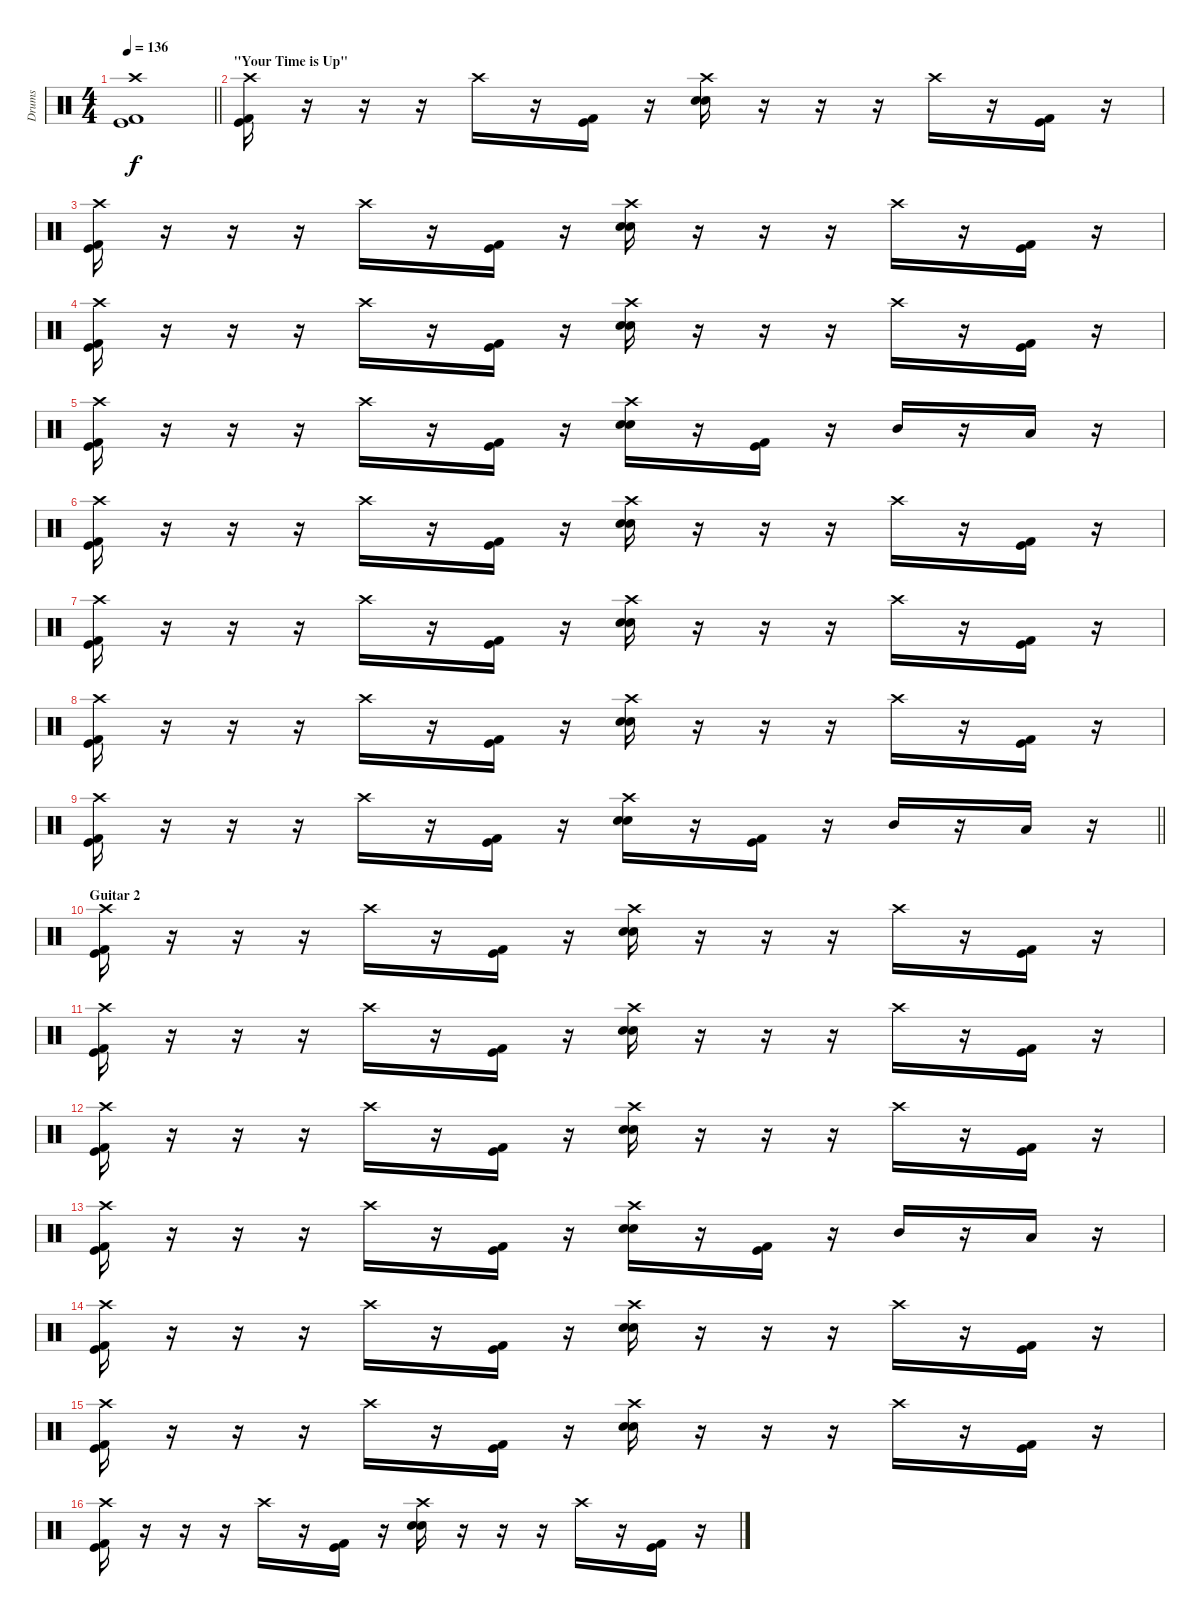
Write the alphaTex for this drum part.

\track ("Drums" "Drums") {instrument percussion}
\staff {score}
\articulation defaults
\ts (4 4)
\section ("" "")
\tempo 136
\clef neutral
\barLineRight lightlight
\ks c
("Crash high (hit)" "Kick (hit)" "Kick (hit) 2").1{dy f} |
\section ("" "\"Your Time is Up\"")
("Crash high (hit)" "Kick (hit)" "Kick (hit) 2").16 r.16 r.16 r.16 "Crash high (hit)".16 r.16 ("Kick (hit)" "Kick (hit) 2").16 r.16 ("Crash high (hit)" "Electric Snare (hit)" "Snare (hit) 2").16 r.16 r.16 r.16 "Crash high (hit)".16 r.16 ("Kick (hit)" "Kick (hit) 2").16 r.16 |
("Crash high (hit)" "Kick (hit)" "Kick (hit) 2").16 r.16 r.16 r.16 "Crash high (hit)".16 r.16 ("Kick (hit)" "Kick (hit) 2").16 r.16 ("Crash high (hit)" "Electric Snare (hit)" "Snare (hit) 2").16 r.16 r.16 r.16 "Crash high (hit)".16 r.16 ("Kick (hit)" "Kick (hit) 2").16 r.16 |
("Crash high (hit)" "Kick (hit)" "Kick (hit) 2").16 r.16 r.16 r.16 "Crash high (hit)".16 r.16 ("Kick (hit)" "Kick (hit) 2").16 r.16 ("Crash high (hit)" "Electric Snare (hit)" "Snare (hit) 2").16 r.16 r.16 r.16 "Crash high (hit)".16 r.16 ("Kick (hit)" "Kick (hit) 2").16 r.16 |
("Crash high (hit)" "Kick (hit)" "Kick (hit) 2").16 r.16 r.16 r.16 "Crash high (hit)".16 r.16 ("Kick (hit)" "Kick (hit) 2").16 r.16 ("Crash high (hit)" "Electric Snare (hit)" "Snare (hit) 2").16 r.16 ("Kick (hit)" "Kick (hit) 2").16 r.16 "Mid Tom (hit)".16 r.16 "Low Tom (hit)".16 r.16 |
("Crash high (hit)" "Kick (hit)" "Kick (hit) 2").16 r.16 r.16 r.16 "Crash high (hit)".16 r.16 ("Kick (hit)" "Kick (hit) 2").16 r.16 ("Crash high (hit)" "Electric Snare (hit)" "Snare (hit) 2").16 r.16 r.16 r.16 "Crash high (hit)".16 r.16 ("Kick (hit)" "Kick (hit) 2").16 r.16 |
("Crash high (hit)" "Kick (hit)" "Kick (hit) 2").16 r.16 r.16 r.16 "Crash high (hit)".16 r.16 ("Kick (hit)" "Kick (hit) 2").16 r.16 ("Crash high (hit)" "Electric Snare (hit)" "Snare (hit) 2").16 r.16 r.16 r.16 "Crash high (hit)".16 r.16 ("Kick (hit)" "Kick (hit) 2").16 r.16 |
("Crash high (hit)" "Kick (hit)" "Kick (hit) 2").16 r.16 r.16 r.16 "Crash high (hit)".16 r.16 ("Kick (hit)" "Kick (hit) 2").16 r.16 ("Crash high (hit)" "Electric Snare (hit)" "Snare (hit) 2").16 r.16 r.16 r.16 "Crash high (hit)".16 r.16 ("Kick (hit)" "Kick (hit) 2").16 r.16 |
\barLineRight lightlight
("Crash high (hit)" "Kick (hit)" "Kick (hit) 2").16 r.16 r.16 r.16 "Crash high (hit)".16 r.16 ("Kick (hit)" "Kick (hit) 2").16 r.16 ("Crash high (hit)" "Electric Snare (hit)" "Snare (hit) 2").16 r.16 ("Kick (hit)" "Kick (hit) 2").16 r.16 "Mid Tom (hit)".16 r.16 "Low Tom (hit)".16 r.16 |
\section ("" "Guitar 2")
("Crash high (hit)" "Kick (hit)" "Kick (hit) 2").16 r.16 r.16 r.16 "Crash high (hit)".16 r.16 ("Kick (hit)" "Kick (hit) 2").16 r.16 ("Crash high (hit)" "Electric Snare (hit)" "Snare (hit) 2").16 r.16 r.16 r.16 "Crash high (hit)".16 r.16 ("Kick (hit)" "Kick (hit) 2").16 r.16 |
("Crash high (hit)" "Kick (hit)" "Kick (hit) 2").16 r.16 r.16 r.16 "Crash high (hit)".16 r.16 ("Kick (hit)" "Kick (hit) 2").16 r.16 ("Crash high (hit)" "Electric Snare (hit)" "Snare (hit) 2").16 r.16 r.16 r.16 "Crash high (hit)".16 r.16 ("Kick (hit)" "Kick (hit) 2").16 r.16 |
("Crash high (hit)" "Kick (hit)" "Kick (hit) 2").16 r.16 r.16 r.16 "Crash high (hit)".16 r.16 ("Kick (hit)" "Kick (hit) 2").16 r.16 ("Crash high (hit)" "Electric Snare (hit)" "Snare (hit) 2").16 r.16 r.16 r.16 "Crash high (hit)".16 r.16 ("Kick (hit)" "Kick (hit) 2").16 r.16 |
("Crash high (hit)" "Kick (hit)" "Kick (hit) 2").16 r.16 r.16 r.16 "Crash high (hit)".16 r.16 ("Kick (hit)" "Kick (hit) 2").16 r.16 ("Crash high (hit)" "Electric Snare (hit)" "Snare (hit) 2").16 r.16 ("Kick (hit)" "Kick (hit) 2").16 r.16 "Mid Tom (hit)".16 r.16 "Low Tom (hit)".16 r.16 |
("Crash high (hit)" "Kick (hit)" "Kick (hit) 2").16 r.16 r.16 r.16 "Crash high (hit)".16 r.16 ("Kick (hit)" "Kick (hit) 2").16 r.16 ("Crash high (hit)" "Electric Snare (hit)" "Snare (hit) 2").16 r.16 r.16 r.16 "Crash high (hit)".16 r.16 ("Kick (hit)" "Kick (hit) 2").16 r.16 |
("Crash high (hit)" "Kick (hit)" "Kick (hit) 2").16 r.16 r.16 r.16 "Crash high (hit)".16 r.16 ("Kick (hit)" "Kick (hit) 2").16 r.16 ("Crash high (hit)" "Electric Snare (hit)" "Snare (hit) 2").16 r.16 r.16 r.16 "Crash high (hit)".16 r.16 ("Kick (hit)" "Kick (hit) 2").16 r.16 |
("Crash high (hit)" "Kick (hit)" "Kick (hit) 2").16 r.16 r.16 r.16 "Crash high (hit)".16 r.16 ("Kick (hit)" "Kick (hit) 2").16 r.16 ("Crash high (hit)" "Electric Snare (hit)" "Snare (hit) 2").16 r.16 r.16 r.16 "Crash high (hit)".16 r.16 ("Kick (hit)" "Kick (hit) 2").16 r.16
